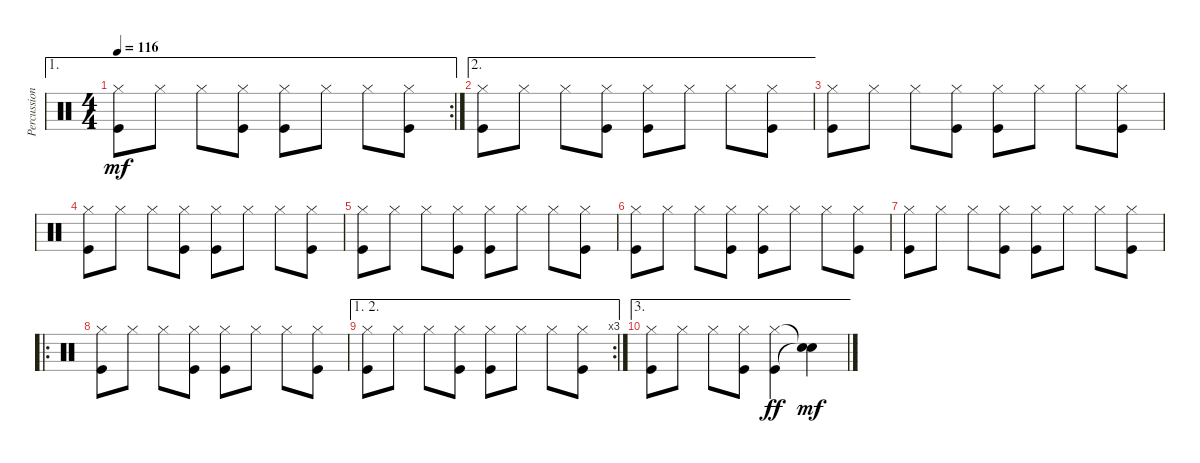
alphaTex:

\track ("Percussions" "Percussion") {instrument percussion}
\staff {score}
\articulation defaults
\ae 1
\rc 2
\ts (4 4)
\tempo 116
\clef neutral
\ks c
("Hi-Hat (closed)" "Kick (hit)").8{dy mf} "Hi-Hat (closed)".8 "Hi-Hat (closed)".8 ("Hi-Hat (closed)" "Kick (hit)").8 ("Hi-Hat (closed)" "Kick (hit)").8 "Hi-Hat (closed)".8 "Hi-Hat (closed)".8 ("Hi-Hat (closed)" "Kick (hit)").8 |
\ae 2
("Hi-Hat (closed)" "Kick (hit)").8 "Hi-Hat (closed)".8 "Hi-Hat (closed)".8 ("Hi-Hat (closed)" "Kick (hit)").8 ("Hi-Hat (closed)" "Kick (hit)").8 "Hi-Hat (closed)".8 "Hi-Hat (closed)".8 ("Hi-Hat (closed)" "Kick (hit)").8 |
("Hi-Hat (closed)" "Kick (hit)").8 "Hi-Hat (closed)".8 "Hi-Hat (closed)".8 ("Hi-Hat (closed)" "Kick (hit)").8 ("Hi-Hat (closed)" "Kick (hit)").8 "Hi-Hat (closed)".8 "Hi-Hat (closed)".8 ("Hi-Hat (closed)" "Kick (hit)").8 |
("Hi-Hat (closed)" "Kick (hit)").8 "Hi-Hat (closed)".8 "Hi-Hat (closed)".8 ("Hi-Hat (closed)" "Kick (hit)").8 ("Hi-Hat (closed)" "Kick (hit)").8 "Hi-Hat (closed)".8 "Hi-Hat (closed)".8 ("Hi-Hat (closed)" "Kick (hit)").8 |
("Hi-Hat (closed)" "Kick (hit)").8 "Hi-Hat (closed)".8 "Hi-Hat (closed)".8 ("Hi-Hat (closed)" "Kick (hit)").8 ("Hi-Hat (closed)" "Kick (hit)").8 "Hi-Hat (closed)".8 "Hi-Hat (closed)".8 ("Hi-Hat (closed)" "Kick (hit)").8 |
("Hi-Hat (closed)" "Kick (hit)").8 "Hi-Hat (closed)".8 "Hi-Hat (closed)".8 ("Hi-Hat (closed)" "Kick (hit)").8 ("Hi-Hat (closed)" "Kick (hit)").8 "Hi-Hat (closed)".8 "Hi-Hat (closed)".8 ("Hi-Hat (closed)" "Kick (hit)").8 |
("Hi-Hat (closed)" "Kick (hit)").8 "Hi-Hat (closed)".8 "Hi-Hat (closed)".8 ("Hi-Hat (closed)" "Kick (hit)").8 ("Hi-Hat (closed)" "Kick (hit)").8 "Hi-Hat (closed)".8 "Hi-Hat (closed)".8 ("Hi-Hat (closed)" "Kick (hit)").8 |
\ro
("Hi-Hat (closed)" "Kick (hit)").8 "Hi-Hat (closed)".8 "Hi-Hat (closed)".8 ("Hi-Hat (closed)" "Kick (hit)").8 ("Hi-Hat (closed)" "Kick (hit)").8 "Hi-Hat (closed)".8 "Hi-Hat (closed)".8 ("Hi-Hat (closed)" "Kick (hit)").8 |
\ae (1 2)
\rc 3
("Hi-Hat (closed)" "Kick (hit)").8 "Hi-Hat (closed)".8 "Hi-Hat (closed)".8 ("Hi-Hat (closed)" "Kick (hit)").8 ("Hi-Hat (closed)" "Kick (hit)").8 "Hi-Hat (closed)".8 "Hi-Hat (closed)".8 ("Hi-Hat (closed)" "Kick (hit)").8 |
\ae 3
("Hi-Hat (closed)" "Kick (hit)").8 "Hi-Hat (closed)".8 "Hi-Hat (closed)".8 ("Hi-Hat (closed)" "Kick (hit)").8 ("Hi-Hat (closed)" "Kick (hit)").4{dy ff} ("Snare (hit)"{t} "Snare (hit)"{t}).4{dy mf}
